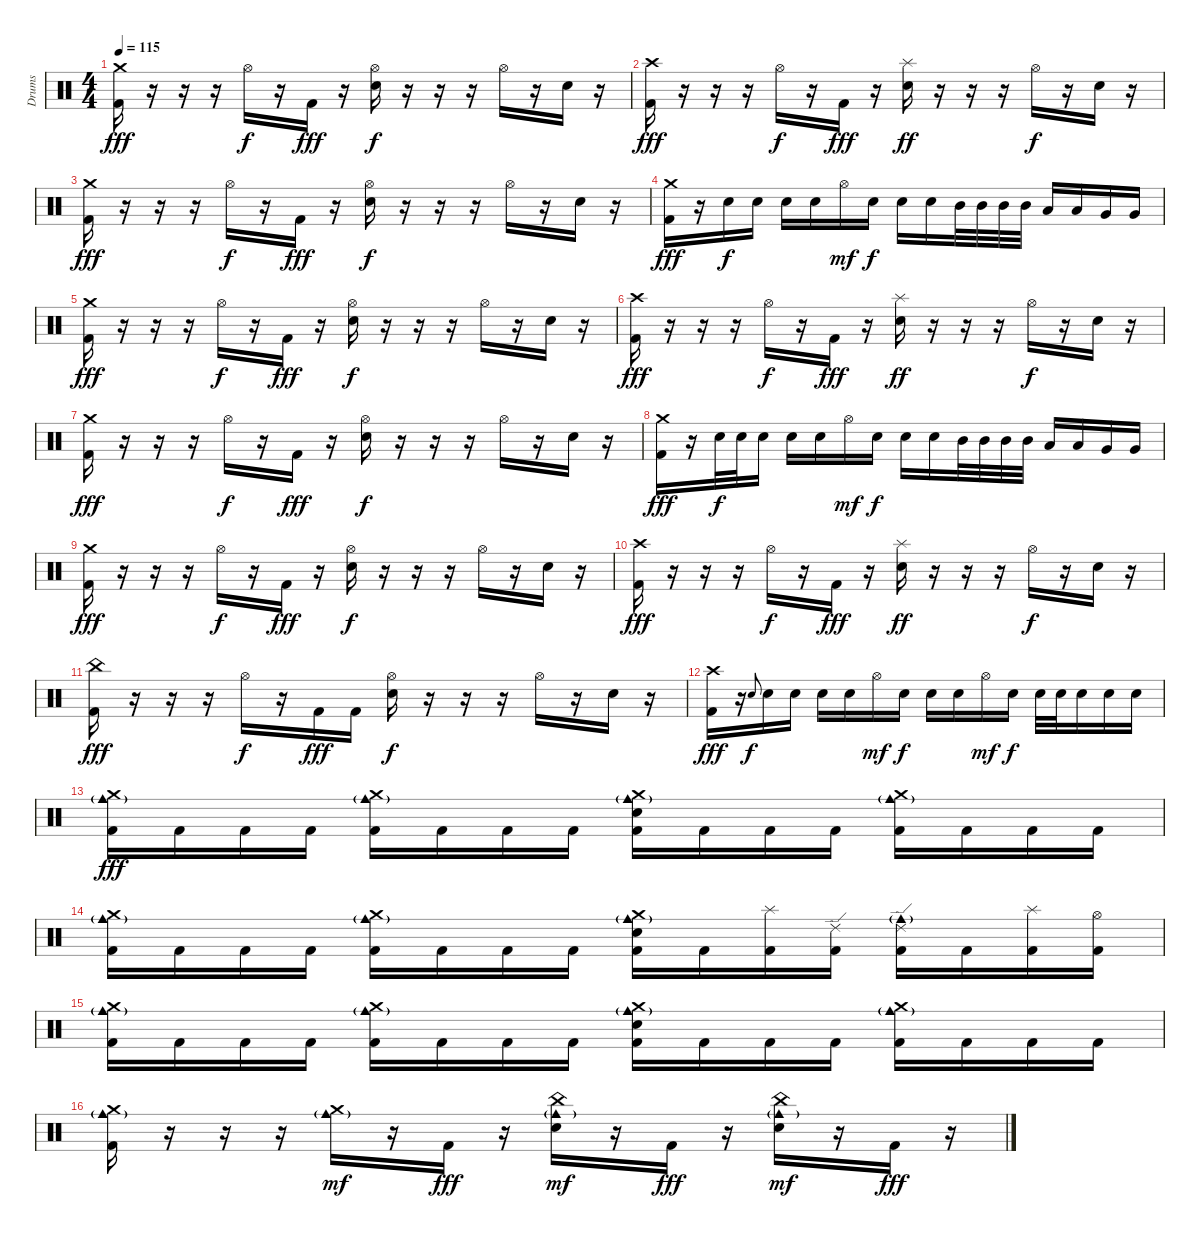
\track ("Drums" "Drums") {instrument percussion}
\staff {score}
\articulation defaults
\ts (4 4)
\tempo 115
\clef neutral
\ks c
("Crash medium (hit)" "Kick (hit) 2").16{dy fff} r.16 r.16 r.16 "Hi-Hat (open)".16{dy f} r.16 "Kick (hit) 2".16{dy fff} r.16 ("Hi-Hat (open)" "Electric Snare (hit)").16{dy f} r.16 r.16 r.16 "Hi-Hat (open)".16 r.16 "Electric Snare (hit)".16 r.16 |
("Crash high (hit)" "Kick (hit) 2").16{dy fff} r.16 r.16 r.16 "Hi-Hat (open)".16{dy f} r.16 "Kick (hit) 2".16{dy fff} r.16 ("Splash (hit)" "Electric Snare (hit)").16{dy ff} r.16 r.16 r.16 "Hi-Hat (open)".16{dy f} r.16 "Electric Snare (hit)".16 r.16 |
("Crash medium (hit)" "Kick (hit) 2").16{dy fff} r.16 r.16 r.16 "Hi-Hat (open)".16{dy f} r.16 "Kick (hit) 2".16{dy fff} r.16 ("Hi-Hat (open)" "Electric Snare (hit)").16{dy f} r.16 r.16 r.16 "Hi-Hat (open)".16 r.16 "Electric Snare (hit)".16 r.16 |
("Crash medium (hit)" "Kick (hit) 2").16{dy fff} r.16 "Electric Snare (hit)".16{dy f} "Electric Snare (hit)".16 "Electric Snare (hit)".16 "Electric Snare (hit)".16 "Hi-Hat (open)".16{dy mf} "Electric Snare (hit)".16{dy f} "Electric Snare (hit)".16 "Electric Snare (hit)".16 "Mid Tom (hit)".32 "Mid Tom (hit)".32 "Mid Tom (hit)".32 "Mid Tom (hit)".32 "Low Tom (hit)".16 "Low Tom (hit)".16 "Very Low Tom (hit)".16 "Very Low Tom (hit)".16 |
("Crash medium (hit)" "Kick (hit) 2").16{dy fff} r.16 r.16 r.16 "Hi-Hat (open)".16{dy f} r.16 "Kick (hit) 2".16{dy fff} r.16 ("Hi-Hat (open)" "Electric Snare (hit)").16{dy f} r.16 r.16 r.16 "Hi-Hat (open)".16 r.16 "Electric Snare (hit)".16 r.16 |
("Crash high (hit)" "Kick (hit) 2").16{dy fff} r.16 r.16 r.16 "Hi-Hat (open)".16{dy f} r.16 "Kick (hit) 2".16{dy fff} r.16 ("Splash (hit)" "Electric Snare (hit)").16{dy ff} r.16 r.16 r.16 "Hi-Hat (open)".16{dy f} r.16 "Electric Snare (hit)".16 r.16 |
("Crash medium (hit)" "Kick (hit) 2").16{dy fff} r.16 r.16 r.16 "Hi-Hat (open)".16{dy f} r.16 "Kick (hit) 2".16{dy fff} r.16 ("Hi-Hat (open)" "Electric Snare (hit)").16{dy f} r.16 r.16 r.16 "Hi-Hat (open)".16 r.16 "Electric Snare (hit)".16 r.16 |
("Crash medium (hit)" "Kick (hit) 2").16{dy fff} r.16 "Electric Snare (hit)".32{dy f} "Electric Snare (hit)".32 "Electric Snare (hit)".16 "Electric Snare (hit)".16 "Electric Snare (hit)".16 "Hi-Hat (open)".16{dy mf} "Electric Snare (hit)".16{dy f} "Electric Snare (hit)".16 "Electric Snare (hit)".16 "Mid Tom (hit)".32 "Mid Tom (hit)".32 "Mid Tom (hit)".32 "Mid Tom (hit)".32 "Low Tom (hit)".16 "Low Tom (hit)".16 "Very Low Tom (hit)".16 "Very Low Tom (hit)".16 |
("Crash medium (hit)" "Kick (hit) 2").16{dy fff} r.16 r.16 r.16 "Hi-Hat (open)".16{dy f} r.16 "Kick (hit) 2".16{dy fff} r.16 ("Hi-Hat (open)" "Electric Snare (hit)").16{dy f} r.16 r.16 r.16 "Hi-Hat (open)".16 r.16 "Electric Snare (hit)".16 r.16 |
("Crash high (hit)" "Kick (hit) 2").16{dy fff} r.16 r.16 r.16 "Hi-Hat (open)".16{dy f} r.16 "Kick (hit) 2".16{dy fff} r.16 ("Splash (hit)" "Electric Snare (hit)").16{dy ff} r.16 r.16 r.16 "Hi-Hat (open)".16{dy f} r.16 "Electric Snare (hit)".16 r.16 |
("China (hit)" "Kick (hit) 2").16{dy fff} r.16 r.16 r.16 "Hi-Hat (open)".16{dy f} r.16 "Kick (hit) 2".16{dy fff} "Kick (hit) 2".16 ("Hi-Hat (open)" "Electric Snare (hit)").16{dy f} r.16 r.16 r.16 "Hi-Hat (open)".16 r.16 "Electric Snare (hit)".16 r.16 |
("Crash high (hit)" "Kick (hit) 2").16{dy fff} r.16 "Electric Snare (hit)".8{gr onbeat dy f} "Electric Snare (hit)".16 "Electric Snare (hit)".16 "Electric Snare (hit)".16 "Electric Snare (hit)".16 "Hi-Hat (open)".16{dy mf} "Electric Snare (hit)".16{dy f} "Electric Snare (hit)".16 "Electric Snare (hit)".16 "Hi-Hat (open)".16{dy mf} "Electric Snare (hit)".16{dy f} "Electric Snare (hit)".32 "Electric Snare (hit)".32 "Electric Snare (hit)".16 "Electric Snare (hit)".16 "Electric Snare (hit)".16 |
("Crash medium (hit)" "Cowbell medium (hit)"{g} "Kick (hit) 2").16{dy fff} "Kick (hit) 2".16 "Kick (hit) 2".16 "Kick (hit) 2".16 ("Crash medium (hit)" "Cowbell medium (hit)"{g} "Kick (hit) 2").16 "Kick (hit) 2".16 "Kick (hit) 2".16 "Kick (hit) 2".16 ("Crash medium (hit)" "Cowbell medium (hit)"{g} "Electric Snare (hit)" "Kick (hit) 2").16 "Kick (hit) 2".16 "Kick (hit) 2".16 "Kick (hit) 2".16 ("Crash medium (hit)" "Cowbell medium (hit)"{g} "Kick (hit) 2").16 "Kick (hit) 2".16 "Kick (hit) 2".16 "Kick (hit) 2".16 |
("Crash medium (hit)" "Cowbell medium (hit)"{g} "Kick (hit) 2").16 "Kick (hit) 2".16 "Kick (hit) 2".16 "Kick (hit) 2".16 ("Crash medium (hit)" "Cowbell medium (hit)"{g} "Kick (hit) 2").16 "Kick (hit) 2".16 "Kick (hit) 2".16 "Kick (hit) 2".16 ("Crash medium (hit)" "Cowbell medium (hit)"{g} "Electric Snare (hit)" "Kick (hit) 2").16 "Kick (hit) 2".16 ("Splash (hit)" "Kick (hit) 2").16 ("Ride (edge) 2" "Kick (hit) 2").16 ("Ride (edge) 2" "Cowbell medium (hit)"{g} "Kick (hit) 2").16 "Kick (hit) 2".16 ("Splash (hit)" "Kick (hit) 2").16 ("Hi-Hat (open)" "Kick (hit) 2").16 |
("Crash medium (hit)" "Cowbell medium (hit)"{g} "Kick (hit) 2").16 "Kick (hit) 2".16 "Kick (hit) 2".16 "Kick (hit) 2".16 ("Crash medium (hit)" "Cowbell medium (hit)"{g} "Kick (hit) 2").16 "Kick (hit) 2".16 "Kick (hit) 2".16 "Kick (hit) 2".16 ("Crash medium (hit)" "Cowbell medium (hit)"{g} "Electric Snare (hit)" "Kick (hit) 2").16 "Kick (hit) 2".16 "Kick (hit) 2".16 "Kick (hit) 2".16 ("Crash medium (hit)" "Cowbell medium (hit)"{g} "Kick (hit) 2").16 "Kick (hit) 2".16 "Kick (hit) 2".16 "Kick (hit) 2".16 |
("Crash medium (hit)" "Cowbell medium (hit)"{g} "Kick (hit) 2").16 r.16 r.16 r.16 ("Crash medium (hit)" "Cowbell medium (hit)"{g}).16{dy mf} r.16 "Kick (hit) 2".16{dy fff} r.16 ("China (hit)" "Cowbell medium (hit)"{g} "Electric Snare (hit)").16{dy mf} r.16 "Kick (hit) 2".16{dy fff} r.16 ("China (hit)" "Cowbell medium (hit)"{g} "Electric Snare (hit)").16{dy mf} r.16 "Kick (hit) 2".16{dy fff} r.16
